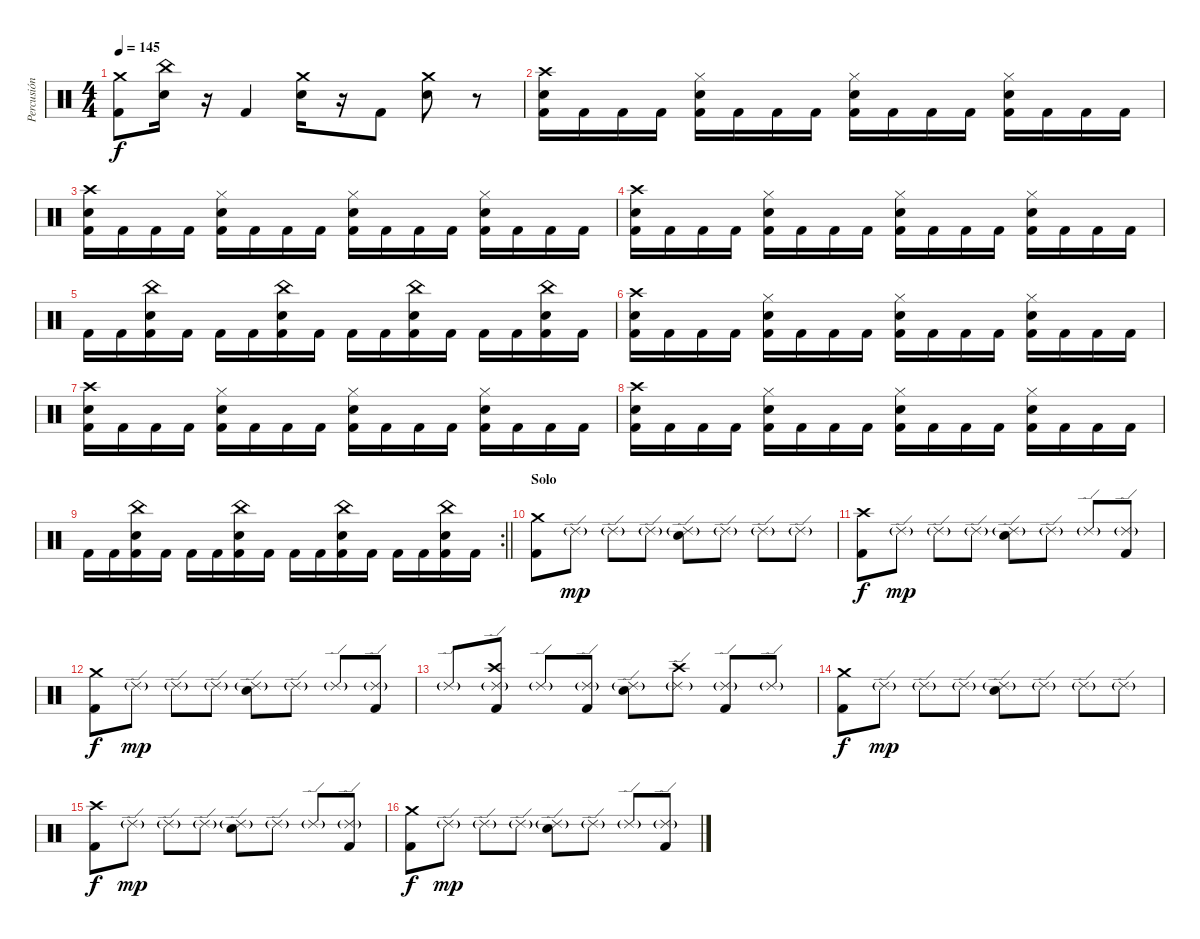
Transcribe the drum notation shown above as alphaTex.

\track ("Percusión" "Percusión") {instrument percussion}
\staff {score}
\articulation defaults
\ts (4 4)
\tempo 145
\clef neutral
\ks c
("Kick (hit) 2" "Crash medium (hit)").8{dy f} ("Electric Snare (hit)" "China (hit)").16 r.16 "Kick (hit) 2".4 ("Crash medium (hit)" "Electric Snare (hit)").16 r.16 "Kick (hit) 2".8 ("Crash medium (hit)" "Electric Snare (hit)").8 r.8 |
("Kick (hit) 2" "Electric Snare (hit)" "Crash high (hit)").16 "Kick (hit) 2".16 "Kick (hit) 2".16 "Kick (hit) 2".16 ("Kick (hit) 2" "Hi-Hat (closed)" "Electric Snare (hit)").16 "Kick (hit) 2".16 "Kick (hit) 2".16 "Kick (hit) 2".16 ("Kick (hit) 2" "Hi-Hat (closed)" "Electric Snare (hit)").16 "Kick (hit) 2".16 "Kick (hit) 2".16 "Kick (hit) 2".16 ("Kick (hit) 2" "Hi-Hat (closed)" "Electric Snare (hit)").16 "Kick (hit) 2".16 "Kick (hit) 2".16 "Kick (hit) 2".16 |
("Kick (hit) 2" "Electric Snare (hit)" "Crash high (hit)").16 "Kick (hit) 2".16 "Kick (hit) 2".16 "Kick (hit) 2".16 ("Kick (hit) 2" "Hi-Hat (closed)" "Electric Snare (hit)").16 "Kick (hit) 2".16 "Kick (hit) 2".16 "Kick (hit) 2".16 ("Kick (hit) 2" "Hi-Hat (closed)" "Electric Snare (hit)").16 "Kick (hit) 2".16 "Kick (hit) 2".16 "Kick (hit) 2".16 ("Kick (hit) 2" "Hi-Hat (closed)" "Electric Snare (hit)").16 "Kick (hit) 2".16 "Kick (hit) 2".16 "Kick (hit) 2".16 |
("Kick (hit) 2" "Electric Snare (hit)" "Crash high (hit)").16 "Kick (hit) 2".16 "Kick (hit) 2".16 "Kick (hit) 2".16 ("Kick (hit) 2" "Hi-Hat (closed)" "Electric Snare (hit)").16 "Kick (hit) 2".16 "Kick (hit) 2".16 "Kick (hit) 2".16 ("Kick (hit) 2" "Hi-Hat (closed)" "Electric Snare (hit)").16 "Kick (hit) 2".16 "Kick (hit) 2".16 "Kick (hit) 2".16 ("Kick (hit) 2" "Hi-Hat (closed)" "Electric Snare (hit)").16 "Kick (hit) 2".16 "Kick (hit) 2".16 "Kick (hit) 2".16 |
"Kick (hit) 2".16 "Kick (hit) 2".16 ("Kick (hit) 2" "China (hit)" "Electric Snare (hit)").16 "Kick (hit) 2".16 "Kick (hit) 2".16 "Kick (hit) 2".16 ("Kick (hit) 2" "China (hit)" "Electric Snare (hit)").16 "Kick (hit) 2".16 "Kick (hit) 2".16 "Kick (hit) 2".16 ("Kick (hit) 2" "China (hit)" "Electric Snare (hit)").16 "Kick (hit) 2".16 "Kick (hit) 2".16 "Kick (hit) 2".16 ("Kick (hit) 2" "China (hit)" "Electric Snare (hit)").16 "Kick (hit) 2".16 |
("Kick (hit) 2" "Electric Snare (hit)" "Crash high (hit)").16 "Kick (hit) 2".16 "Kick (hit) 2".16 "Kick (hit) 2".16 ("Kick (hit) 2" "Hi-Hat (closed)" "Electric Snare (hit)").16 "Kick (hit) 2".16 "Kick (hit) 2".16 "Kick (hit) 2".16 ("Kick (hit) 2" "Hi-Hat (closed)" "Electric Snare (hit)").16 "Kick (hit) 2".16 "Kick (hit) 2".16 "Kick (hit) 2".16 ("Kick (hit) 2" "Hi-Hat (closed)" "Electric Snare (hit)").16 "Kick (hit) 2".16 "Kick (hit) 2".16 "Kick (hit) 2".16 |
("Kick (hit) 2" "Electric Snare (hit)" "Crash high (hit)").16 "Kick (hit) 2".16 "Kick (hit) 2".16 "Kick (hit) 2".16 ("Kick (hit) 2" "Hi-Hat (closed)" "Electric Snare (hit)").16 "Kick (hit) 2".16 "Kick (hit) 2".16 "Kick (hit) 2".16 ("Kick (hit) 2" "Hi-Hat (closed)" "Electric Snare (hit)").16 "Kick (hit) 2".16 "Kick (hit) 2".16 "Kick (hit) 2".16 ("Kick (hit) 2" "Hi-Hat (closed)" "Electric Snare (hit)").16 "Kick (hit) 2".16 "Kick (hit) 2".16 "Kick (hit) 2".16 |
("Kick (hit) 2" "Electric Snare (hit)" "Crash high (hit)").16 "Kick (hit) 2".16 "Kick (hit) 2".16 "Kick (hit) 2".16 ("Kick (hit) 2" "Hi-Hat (closed)" "Electric Snare (hit)").16 "Kick (hit) 2".16 "Kick (hit) 2".16 "Kick (hit) 2".16 ("Kick (hit) 2" "Hi-Hat (closed)" "Electric Snare (hit)").16 "Kick (hit) 2".16 "Kick (hit) 2".16 "Kick (hit) 2".16 ("Kick (hit) 2" "Hi-Hat (closed)" "Electric Snare (hit)").16 "Kick (hit) 2".16 "Kick (hit) 2".16 "Kick (hit) 2".16 |
\rc 2
\barLineRight lightlight "Kick (hit) 2".16 "Kick (hit) 2".16
("Kick (hit) 2" "China (hit)" "Electric Snare (hit)").16 "Kick (hit) 2".16 "Kick (hit) 2".16 "Kick (hit) 2".16 ("Kick (hit) 2" "China (hit)" "Electric Snare (hit)").16 "Kick (hit) 2".16 "Kick (hit) 2".16 "Kick (hit) 2".16 ("Kick (hit) 2" "China (hit)" "Electric Snare (hit)").16 "Kick (hit) 2".16 "Kick (hit) 2".16 "Kick (hit) 2".16 ("Kick (hit) 2" "China (hit)" "Electric Snare (hit)").16 "Kick (hit) 2".16 |
\section ("" "Solo")
("Kick (hit) 2" "Crash medium (hit)").8 "Ride (edge) 2"{g}.8{dy mp} "Ride (edge) 2"{g}.8 "Ride (edge) 2"{g}.8 ("Electric Snare (hit)" "Ride (edge) 2"{g}).8 "Ride (edge) 2"{g}.8 "Ride (edge) 2"{g}.8 "Ride (edge) 2"{g}.8 |
("Kick (hit) 2" "Crash high (hit)").8{dy f} "Ride (edge) 2"{g}.8{dy mp} "Ride (edge) 2"{g}.8 "Ride (edge) 2"{g}.8 ("Electric Snare (hit)" "Ride (edge) 2"{g}).8 "Ride (edge) 2"{g}.8 "Ride (edge) 2"{g}.8 ("Kick (hit) 2" "Ride (edge) 2"{g}).8 |
("Kick (hit) 2" "Crash medium (hit)").8{dy f} "Ride (edge) 2"{g}.8{dy mp} "Ride (edge) 2"{g}.8 "Ride (edge) 2"{g}.8 ("Electric Snare (hit)" "Ride (edge) 2"{g}).8 "Ride (edge) 2"{g}.8 "Ride (edge) 2"{g}.8 ("Kick (hit) 2" "Ride (edge) 2"{g}).8 |
"Ride (edge) 2"{g}.8 ("Kick (hit) 2" "Ride (edge) 2"{g} "Crash high (hit)").8 "Ride (edge) 2"{g}.8 ("Kick (hit) 2" "Ride (edge) 2"{g}).8 ("Electric Snare (hit)" "Ride (edge) 2"{g}).8 ("Ride (edge) 2"{g} "Crash high (hit)").8 ("Kick (hit) 2" "Ride (edge) 2"{g}).8 "Ride (edge) 2"{g}.8 |
("Kick (hit) 2" "Crash medium (hit)").8{dy f} "Ride (edge) 2"{g}.8{dy mp} "Ride (edge) 2"{g}.8 "Ride (edge) 2"{g}.8 ("Electric Snare (hit)" "Ride (edge) 2"{g}).8 "Ride (edge) 2"{g}.8 "Ride (edge) 2"{g}.8 "Ride (edge) 2"{g}.8 |
("Kick (hit) 2" "Crash high (hit)").8{dy f} "Ride (edge) 2"{g}.8{dy mp} "Ride (edge) 2"{g}.8 "Ride (edge) 2"{g}.8 ("Electric Snare (hit)" "Ride (edge) 2"{g}).8 "Ride (edge) 2"{g}.8 "Ride (edge) 2"{g}.8 ("Kick (hit) 2" "Ride (edge) 2"{g}).8 |
("Kick (hit) 2" "Crash medium (hit)").8{dy f} "Ride (edge) 2"{g}.8{dy mp} "Ride (edge) 2"{g}.8 "Ride (edge) 2"{g}.8 ("Electric Snare (hit)" "Ride (edge) 2"{g}).8 "Ride (edge) 2"{g}.8 "Ride (edge) 2"{g}.8 ("Kick (hit) 2" "Ride (edge) 2"{g}).8
